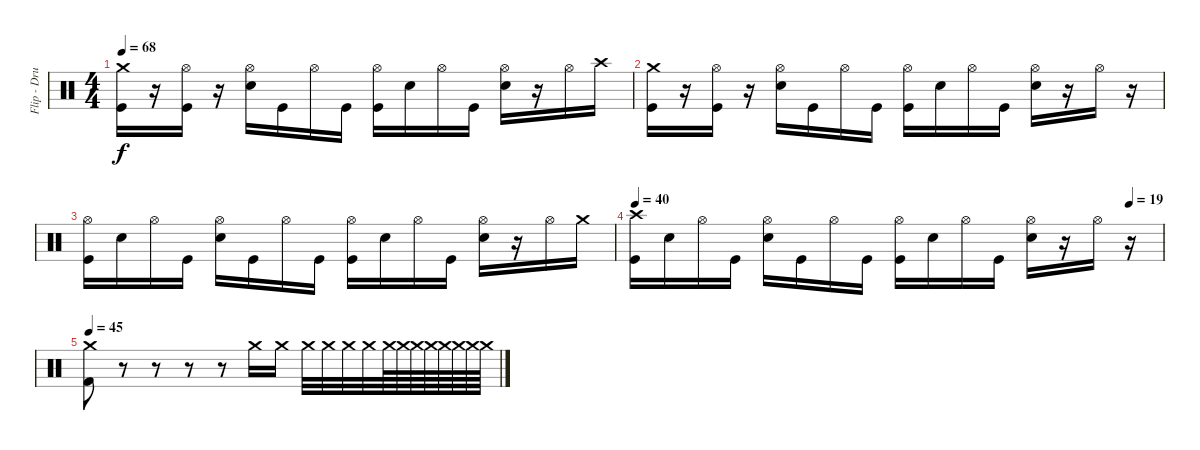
\track ("Flip - Drums" "Flip - Dru") {instrument percussion}
\staff {score}
\articulation defaults
\ts (4 4)
\tempo 68
\clef neutral
\ks c
("Crash medium (hit)" "Kick (hit)").16{dy f} r.16 ("Hi-Hat (open)" "Kick (hit)").16 r.16 ("Hi-Hat (open)" "Snare (hit) 2").16 "Kick (hit)".16 "Hi-Hat (open)".16 "Kick (hit)".16 ("Hi-Hat (open)" "Kick (hit)").16 "Snare (hit) 2".16 "Hi-Hat (open)".16 "Kick (hit)".16 ("Hi-Hat (open)" "Snare (hit) 2").16 r.16 "Hi-Hat (open)".16 "Crash high (hit)".16 |
("Crash medium (hit)" "Kick (hit)").16 r.16 ("Hi-Hat (open)" "Kick (hit)").16 r.16 ("Hi-Hat (open)" "Snare (hit) 2").16 "Kick (hit)".16 "Hi-Hat (open)".16 "Kick (hit)".16 ("Hi-Hat (open)" "Kick (hit)").16 "Snare (hit) 2".16 "Hi-Hat (open)".16 "Kick (hit)".16 ("Hi-Hat (open)" "Snare (hit) 2").16 r.16 "Hi-Hat (open)".16 r.16 |
("Hi-Hat (open)" "Kick (hit)").16 "Snare (hit) 2".16 "Hi-Hat (open)".16 "Kick (hit)".16 ("Hi-Hat (open)" "Snare (hit) 2").16 "Kick (hit)".16 "Hi-Hat (open)".16 "Kick (hit)".16 ("Hi-Hat (open)" "Kick (hit)").16 "Snare (hit) 2".16 "Hi-Hat (open)".16 "Kick (hit)".16 ("Hi-Hat (open)" "Snare (hit) 2").16 r.16 "Hi-Hat (open)".16 "Crash medium (hit)".16 |
\tempo 40
\tempo (19 0.9375)
("Crash high (hit)" "Kick (hit)").16 "Snare (hit) 2".16 "Hi-Hat (open)".16 "Kick (hit)".16 ("Hi-Hat (open)" "Snare (hit) 2").16 "Kick (hit)".16 "Hi-Hat (open)".16 "Kick (hit)".16 ("Hi-Hat (open)" "Kick (hit)").16 "Snare (hit) 2".16 "Hi-Hat (open)".16 "Kick (hit)".16 ("Hi-Hat (open)" "Snare (hit) 2").16 r.16 "Hi-Hat (open)".16 r.16 |
\tempo 45
("Crash medium (hit)" "Kick (hit) 2").8 r.8 r.8 r.8 r.8 "Crash medium (hit)".16 "Crash medium (hit)".16 "Crash medium (hit)".32 "Crash medium (hit)".32 "Crash medium (hit)".32 "Crash medium (hit)".32 "Crash medium (hit)".64 "Crash medium (hit)".64 "Crash medium (hit)".64 "Crash medium (hit)".64 "Crash medium (hit)".64 "Crash medium (hit)".64 "Crash medium (hit)".64 "Crash medium (hit)".64
